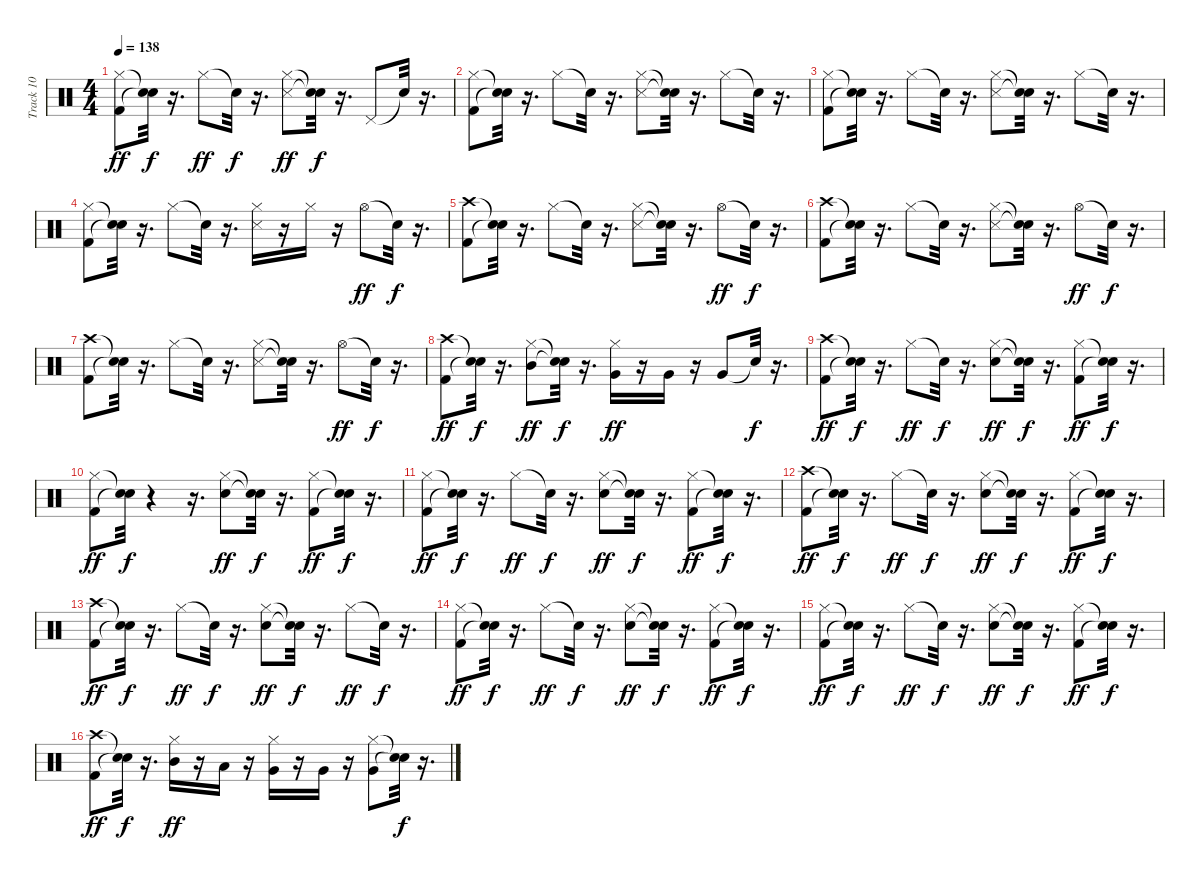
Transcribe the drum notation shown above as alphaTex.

\track ("Track 10" "Track 10") {instrument percussion}
\staff {score}
\articulation defaults
\ts (4 4)
\tempo 138
\clef neutral
\ks c
("Hi-Hat (closed)" "Kick (hit) 2").8{dy ff} ("Snare (hit)"{t} "Snare (hit)"{t}).32{dy f} r.16{d} "Hi-Hat (closed)".8{dy ff} "Snare (hit)"{t}.32{dy f} r.16{d} ("Snare (side stick) 3" "Hi-Hat (closed)").8{dy ff} ("Snare (hit)"{t} "Snare (hit)"{t}).32{dy f} r.16{d} "Pedal Hi-Hat (hit)".8 "Snare (hit)"{t}.32 r.16{d} |
("Hi-Hat (closed)" "Kick (hit) 2").8 ("Snare (hit)"{t} "Snare (hit)"{t}).32 r.16{d} "Hi-Hat (closed)".8 "Snare (hit)"{t}.32 r.16{d} ("Snare (side stick) 3" "Hi-Hat (closed)").8 ("Snare (hit)"{t} "Snare (hit)"{t}).32 r.16{d} "Hi-Hat (closed)".8 "Snare (hit)"{t}.32 r.16{d} |
("Hi-Hat (closed)" "Kick (hit) 2").8 ("Snare (hit)"{t} "Snare (hit)"{t}).32 r.16{d} "Hi-Hat (closed)".8 "Snare (hit)"{t}.32 r.16{d} ("Snare (side stick) 3" "Hi-Hat (closed)").8 ("Snare (hit)"{t} "Snare (hit)"{t}).32 r.16{d} "Hi-Hat (closed)".8 "Snare (hit)"{t}.32 r.16{d} |
("Hi-Hat (closed)" "Kick (hit) 2").8 ("Snare (hit)"{t} "Snare (hit)"{t}).32 r.16{d} "Hi-Hat (closed)".8 "Snare (hit)"{t}.32 r.16{d} ("Snare (side stick) 3" "Hi-Hat (closed)").16 r.16 "Hi-Hat (closed)".16 r.16 "Hi-Hat (open)".8{dy ff} "Snare (hit)"{t}.32{dy f} r.16{d} |
("Crash high (hit)" "Kick (hit) 2").8 ("Snare (hit)"{t} "Snare (hit)"{t}).32 r.16{d} "Hi-Hat (closed)".8 "Snare (hit)"{t}.32 r.16{d} ("Snare (side stick) 3" "Hi-Hat (closed)").8 ("Snare (hit)"{t} "Snare (hit)"{t}).32 r.16{d} "Hi-Hat (open)".8{dy ff} "Snare (hit)"{t}.32{dy f} r.16{d} |
("Crash high (hit)" "Kick (hit) 2").8 ("Snare (hit)"{t} "Snare (hit)"{t}).32 r.16{d} "Hi-Hat (closed)".8 "Snare (hit)"{t}.32 r.16{d} ("Snare (side stick) 3" "Hi-Hat (closed)").8 ("Snare (hit)"{t} "Snare (hit)"{t}).32 r.16{d} "Hi-Hat (open)".8{dy ff} "Snare (hit)"{t}.32{dy f} r.16{d} |
("Crash high (hit)" "Kick (hit) 2").8 ("Snare (hit)"{t} "Snare (hit)"{t}).32 r.16{d} "Hi-Hat (closed)".8 "Snare (hit)"{t}.32 r.16{d} ("Snare (side stick) 3" "Hi-Hat (closed)").8 ("Snare (hit)"{t} "Snare (hit)"{t}).32 r.16{d} "Hi-Hat (open)".8{dy ff} "Snare (hit)"{t}.32{dy f} r.16{d} |
("Crash high (hit)" "Kick (hit) 2").8{dy ff} ("Snare (hit)"{t} "Snare (hit)"{t}).32{dy f} r.16{d} ("Mid Tom (hit)" "Hi-Hat (closed)").8{dy ff} ("Snare (hit)"{t} "Snare (hit)"{t}).32{dy f} r.16{d} ("Very Low Tom (hit)" "Hi-Hat (closed)").16{dy ff} r.16 "Very Low Tom (hit)".16 r.16 "Very Low Tom (hit)".8 "Snare (hit)"{t}.32{dy f} r.16{d} |
("Crash high (hit)" "Kick (hit) 2").8{dy ff} ("Snare (hit)"{t} "Snare (hit)"{t}).32{dy f} r.16{d} "Hi-Hat (closed)".8{dy ff} "Snare (hit)"{t}.32{dy f} r.16{d} ("Snare (hit) 2" "Hi-Hat (closed)").8{dy ff} ("Snare (hit)"{t} "Snare (hit)"{t}).32{dy f} r.16{d} ("Hi-Hat (closed)" "Kick (hit) 2").8{dy ff} ("Snare (hit)"{t} "Snare (hit)"{t}).32{dy f} r.16{d} |
("Hi-Hat (closed)" "Kick (hit) 2").8{dy ff} ("Snare (hit)"{t} "Snare (hit)"{t}).32{dy f} r.4 r.16{d} ("Snare (hit) 2" "Hi-Hat (closed)").8{dy ff} ("Snare (hit)"{t} "Snare (hit)"{t}).32{dy f} r.16{d} ("Hi-Hat (closed)" "Kick (hit) 2").8{dy ff} ("Snare (hit)"{t} "Snare (hit)"{t}).32{dy f} r.16{d} |
("Hi-Hat (closed)" "Kick (hit) 2").8{dy ff} ("Snare (hit)"{t} "Snare (hit)"{t}).32{dy f} r.16{d} "Hi-Hat (closed)".8{dy ff} "Snare (hit)"{t}.32{dy f} r.16{d} ("Snare (hit) 2" "Hi-Hat (closed)").8{dy ff} ("Snare (hit)"{t} "Snare (hit)"{t}).32{dy f} r.16{d} ("Hi-Hat (closed)" "Kick (hit) 2").8{dy ff} ("Snare (hit)"{t} "Snare (hit)"{t}).32{dy f} r.16{d} |
("Crash high (hit)" "Kick (hit) 2").8{dy ff} ("Snare (hit)"{t} "Snare (hit)"{t}).32{dy f} r.16{d} "Hi-Hat (closed)".8{dy ff} "Snare (hit)"{t}.32{dy f} r.16{d} ("Snare (hit) 2" "Hi-Hat (closed)").8{dy ff} ("Snare (hit)"{t} "Snare (hit)"{t}).32{dy f} r.16{d} ("Hi-Hat (closed)" "Kick (hit) 2").8{dy ff} ("Snare (hit)"{t} "Snare (hit)"{t}).32{dy f} r.16{d} |
("Crash high (hit)" "Kick (hit) 2").8{dy ff} ("Snare (hit)"{t} "Snare (hit)"{t}).32{dy f} r.16{d} "Hi-Hat (closed)".8{dy ff} "Snare (hit)"{t}.32{dy f} r.16{d} ("Snare (hit) 2" "Hi-Hat (closed)").8{dy ff} ("Snare (hit)"{t} "Snare (hit)"{t}).32{dy f} r.16{d} "Hi-Hat (closed)".8{dy ff} "Snare (hit)"{t}.32{dy f} r.16{d} |
("Hi-Hat (closed)" "Kick (hit) 2").8{dy ff} ("Snare (hit)"{t} "Snare (hit)"{t}).32{dy f} r.16{d} "Hi-Hat (closed)".8{dy ff} "Snare (hit)"{t}.32{dy f} r.16{d} ("Snare (hit) 2" "Hi-Hat (closed)").8{dy ff} ("Snare (hit)"{t} "Snare (hit)"{t}).32{dy f} r.16{d} ("Hi-Hat (closed)" "Kick (hit) 2").8{dy ff} ("Snare (hit)"{t} "Snare (hit)"{t}).32{dy f} r.16{d} |
("Hi-Hat (closed)" "Kick (hit) 2").8{dy ff} ("Snare (hit)"{t} "Snare (hit)"{t}).32{dy f} r.16{d} "Hi-Hat (closed)".8{dy ff} "Snare (hit)"{t}.32{dy f} r.16{d} ("Snare (hit) 2" "Hi-Hat (closed)").8{dy ff} ("Snare (hit)"{t} "Snare (hit)"{t}).32{dy f} r.16{d} ("Hi-Hat (closed)" "Kick (hit) 2").8{dy ff} ("Snare (hit)"{t} "Snare (hit)"{t}).32{dy f} r.16{d} |
("Crash high (hit)" "Kick (hit) 2").8{dy ff} ("Snare (hit)"{t} "Snare (hit)"{t}).32{dy f} r.16{d} ("Mid Tom (hit)" "Hi-Hat (closed)").16{dy ff} r.16 "Low Tom (hit)".16 r.16 ("Very Low Tom (hit)" "Hi-Hat (closed)").16 r.16 "Very Low Tom (hit)".16 r.16 ("Very Low Tom (hit)" "Hi-Hat (closed)").8 ("Snare (hit)"{t} "Snare (hit)"{t}).32{dy f} r.16{d}
